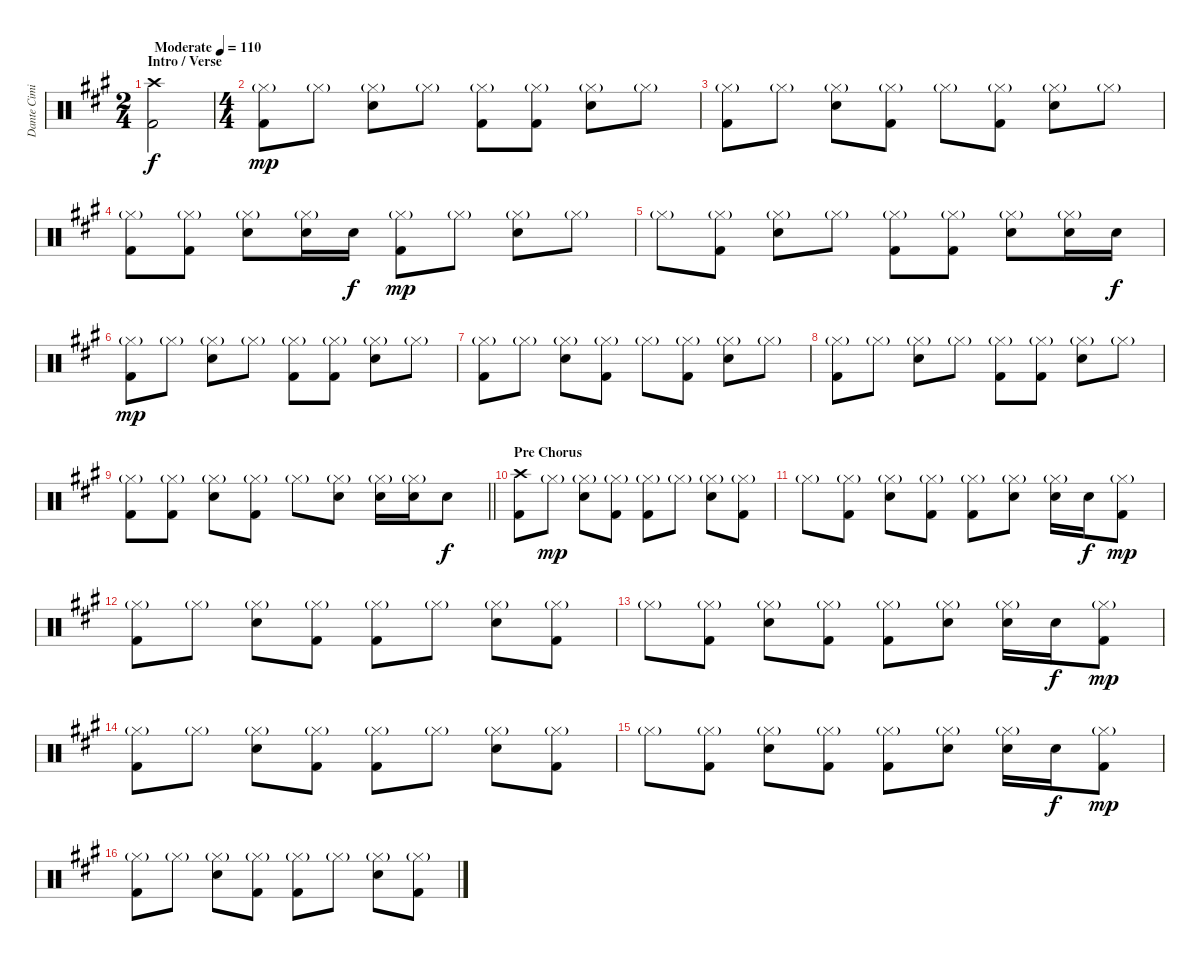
\track ("Dante Cimino" "Dante Cimi") {instrument percussion}
\staff {score}
\articulation defaults
\ts (2 4)
\section ("" "Intro / Verse")
\tempo (110 "Moderate")
\clef neutral
\ks a
("Crash high (hit)" "Kick (hit) 2").2{dy f} |
\ts (4 4)
("Hi-Hat (closed)"{g} "Kick (hit) 2").8{dy mp} "Hi-Hat (closed)"{g}.8 ("Hi-Hat (closed)"{g} "Electric Snare (hit)").8 "Hi-Hat (closed)"{g}.8 ("Hi-Hat (closed)"{g} "Kick (hit) 2").8 ("Hi-Hat (closed)"{g} "Kick (hit) 2").8 ("Hi-Hat (closed)"{g} "Electric Snare (hit)").8 "Hi-Hat (closed)"{g}.8 |
("Hi-Hat (closed)"{g} "Kick (hit) 2").8 "Hi-Hat (closed)"{g}.8 ("Hi-Hat (closed)"{g} "Electric Snare (hit)").8 ("Hi-Hat (closed)"{g} "Kick (hit) 2").8 "Hi-Hat (closed)"{g}.8 ("Hi-Hat (closed)"{g} "Kick (hit) 2").8 ("Hi-Hat (closed)"{g} "Electric Snare (hit)").8 "Hi-Hat (closed)"{g}.8 |
("Hi-Hat (closed)"{g} "Kick (hit) 2").8 ("Hi-Hat (closed)"{g} "Kick (hit) 2").8 ("Hi-Hat (closed)"{g} "Electric Snare (hit)").8 ("Hi-Hat (closed)"{g} "Electric Snare (hit)").16 "Electric Snare (hit)".16{dy f} ("Hi-Hat (closed)"{g} "Kick (hit) 2").8{dy mp} "Hi-Hat (closed)"{g}.8 ("Hi-Hat (closed)"{g} "Electric Snare (hit)").8 "Hi-Hat (closed)"{g}.8 |
"Hi-Hat (closed)"{g}.8 ("Hi-Hat (closed)"{g} "Kick (hit) 2").8 ("Hi-Hat (closed)"{g} "Electric Snare (hit)").8 "Hi-Hat (closed)"{g}.8 ("Hi-Hat (closed)"{g} "Kick (hit) 2").8 ("Hi-Hat (closed)"{g} "Kick (hit) 2").8 ("Hi-Hat (closed)"{g} "Electric Snare (hit)").8 ("Hi-Hat (closed)"{g} "Electric Snare (hit)").16 "Electric Snare (hit)".16{dy f} |
("Hi-Hat (closed)"{g} "Kick (hit) 2").8{dy mp} "Hi-Hat (closed)"{g}.8 ("Hi-Hat (closed)"{g} "Electric Snare (hit)").8 "Hi-Hat (closed)"{g}.8 ("Hi-Hat (closed)"{g} "Kick (hit) 2").8 ("Hi-Hat (closed)"{g} "Kick (hit) 2").8 ("Hi-Hat (closed)"{g} "Electric Snare (hit)").8 "Hi-Hat (closed)"{g}.8 |
("Hi-Hat (closed)"{g} "Kick (hit) 2").8 "Hi-Hat (closed)"{g}.8 ("Hi-Hat (closed)"{g} "Electric Snare (hit)").8 ("Hi-Hat (closed)"{g} "Kick (hit) 2").8 "Hi-Hat (closed)"{g}.8 ("Hi-Hat (closed)"{g} "Kick (hit) 2").8 ("Hi-Hat (closed)"{g} "Electric Snare (hit)").8 "Hi-Hat (closed)"{g}.8 |
("Hi-Hat (closed)"{g} "Kick (hit) 2").8 "Hi-Hat (closed)"{g}.8 ("Hi-Hat (closed)"{g} "Electric Snare (hit)").8 "Hi-Hat (closed)"{g}.8 ("Hi-Hat (closed)"{g} "Kick (hit) 2").8 ("Hi-Hat (closed)"{g} "Kick (hit) 2").8 ("Hi-Hat (closed)"{g} "Electric Snare (hit)").8 "Hi-Hat (closed)"{g}.8 |
\barLineRight lightlight
("Hi-Hat (closed)"{g} "Kick (hit) 2").8 ("Hi-Hat (closed)"{g} "Kick (hit) 2").8 ("Hi-Hat (closed)"{g} "Electric Snare (hit)").8 ("Hi-Hat (closed)"{g} "Kick (hit) 2").8 "Hi-Hat (closed)"{g}.8 ("Hi-Hat (closed)"{g} "Electric Snare (hit)").8 ("Hi-Hat (closed)"{g} "Electric Snare (hit)").16 ("Hi-Hat (closed)"{g} "Electric Snare (hit)").16 "Electric Snare (hit)".8{dy f} |
\section ("" "Pre Chorus")
("Crash high (hit)" "Kick (hit) 2").8 "Hi-Hat (closed)"{g}.8{dy mp} ("Hi-Hat (closed)"{g} "Electric Snare (hit)").8 ("Hi-Hat (closed)"{g} "Kick (hit) 2").8 ("Hi-Hat (closed)"{g} "Kick (hit) 2").8 "Hi-Hat (closed)"{g}.8 ("Hi-Hat (closed)"{g} "Electric Snare (hit)").8 ("Hi-Hat (closed)"{g} "Kick (hit) 2").8 |
"Hi-Hat (closed)"{g}.8 ("Hi-Hat (closed)"{g} "Kick (hit) 2").8 ("Hi-Hat (closed)"{g} "Electric Snare (hit)").8 ("Hi-Hat (closed)"{g} "Kick (hit) 2").8 ("Hi-Hat (closed)"{g} "Kick (hit) 2").8 ("Hi-Hat (closed)"{g} "Electric Snare (hit)").8 ("Hi-Hat (closed)"{g} "Electric Snare (hit)").16 "Electric Snare (hit)".16{dy f} ("Hi-Hat (closed)"{g} "Kick (hit) 2").8{dy mp} |
("Hi-Hat (closed)"{g} "Kick (hit) 2").8 "Hi-Hat (closed)"{g}.8 ("Hi-Hat (closed)"{g} "Electric Snare (hit)").8 ("Hi-Hat (closed)"{g} "Kick (hit) 2").8 ("Hi-Hat (closed)"{g} "Kick (hit) 2").8 "Hi-Hat (closed)"{g}.8 ("Hi-Hat (closed)"{g} "Electric Snare (hit)").8 ("Hi-Hat (closed)"{g} "Kick (hit) 2").8 |
"Hi-Hat (closed)"{g}.8 ("Hi-Hat (closed)"{g} "Kick (hit) 2").8 ("Hi-Hat (closed)"{g} "Electric Snare (hit)").8 ("Hi-Hat (closed)"{g} "Kick (hit) 2").8 ("Hi-Hat (closed)"{g} "Kick (hit) 2").8 ("Hi-Hat (closed)"{g} "Electric Snare (hit)").8 ("Hi-Hat (closed)"{g} "Electric Snare (hit)").16 "Electric Snare (hit)".16{dy f} ("Hi-Hat (closed)"{g} "Kick (hit) 2").8{dy mp} |
("Hi-Hat (closed)"{g} "Kick (hit) 2").8 "Hi-Hat (closed)"{g}.8 ("Hi-Hat (closed)"{g} "Electric Snare (hit)").8 ("Hi-Hat (closed)"{g} "Kick (hit) 2").8 ("Hi-Hat (closed)"{g} "Kick (hit) 2").8 "Hi-Hat (closed)"{g}.8 ("Hi-Hat (closed)"{g} "Electric Snare (hit)").8 ("Hi-Hat (closed)"{g} "Kick (hit) 2").8 |
"Hi-Hat (closed)"{g}.8 ("Hi-Hat (closed)"{g} "Kick (hit) 2").8 ("Hi-Hat (closed)"{g} "Electric Snare (hit)").8 ("Hi-Hat (closed)"{g} "Kick (hit) 2").8 ("Hi-Hat (closed)"{g} "Kick (hit) 2").8 ("Hi-Hat (closed)"{g} "Electric Snare (hit)").8 ("Hi-Hat (closed)"{g} "Electric Snare (hit)").16 "Electric Snare (hit)".16{dy f} ("Hi-Hat (closed)"{g} "Kick (hit) 2").8{dy mp} |
("Hi-Hat (closed)"{g} "Kick (hit) 2").8 "Hi-Hat (closed)"{g}.8 ("Hi-Hat (closed)"{g} "Electric Snare (hit)").8 ("Hi-Hat (closed)"{g} "Kick (hit) 2").8 ("Hi-Hat (closed)"{g} "Kick (hit) 2").8 "Hi-Hat (closed)"{g}.8 ("Hi-Hat (closed)"{g} "Electric Snare (hit)").8 ("Hi-Hat (closed)"{g} "Kick (hit) 2").8
